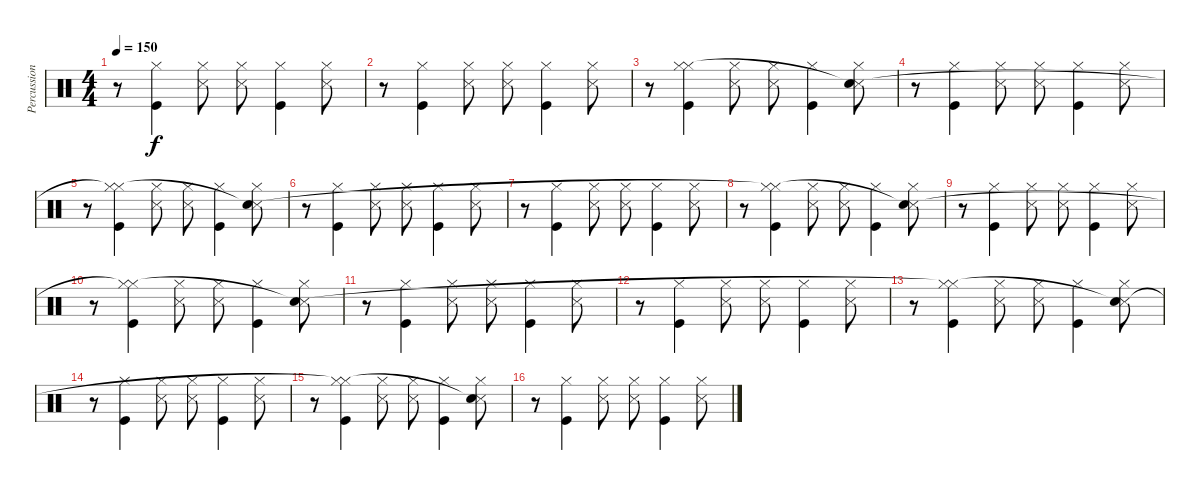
\track ("Percussion" "Percussion") {instrument percussion}
\staff {score}
\articulation defaults
\ts (4 4)
\tempo 150
\clef neutral
\ks c
r.8{dy f} ("Kick (hit)" "Hi-Hat (closed)").4 ("Snare (side stick) 3" "Hi-Hat (closed)").8 ("Snare (side stick) 3" "Hi-Hat (closed)").8 ("Kick (hit)" "Hi-Hat (closed)").4 ("Snare (side stick) 3" "Hi-Hat (closed)").8 |
r.8 ("Kick (hit)" "Hi-Hat (closed)").4 ("Snare (side stick) 3" "Hi-Hat (closed)").8 ("Snare (side stick) 3" "Hi-Hat (closed)").8 ("Kick (hit)" "Hi-Hat (closed)").4 ("Snare (side stick) 3" "Hi-Hat (closed)").8 |
r.8 ("Kick (hit)" "Hi-Hat (closed)" "Hi-Hat (closed)"{t}).4 ("Snare (side stick) 3" "Hi-Hat (closed)").8 ("Snare (side stick) 3" "Hi-Hat (closed)").8 ("Kick (hit)" "Hi-Hat (closed)").4 ("Snare (side stick) 3" "Hi-Hat (closed)" "Snare (hit)"{t}).8 |
r.8 ("Kick (hit)" "Hi-Hat (closed)").4 ("Snare (side stick) 3" "Hi-Hat (closed)").8 ("Snare (side stick) 3" "Hi-Hat (closed)").8 ("Kick (hit)" "Hi-Hat (closed)").4 ("Snare (side stick) 3" "Hi-Hat (closed)").8 |
r.8 ("Kick (hit)" "Hi-Hat (closed)" "Hi-Hat (closed)"{t}).4 ("Snare (side stick) 3" "Hi-Hat (closed)").8 ("Snare (side stick) 3" "Hi-Hat (closed)").8 ("Kick (hit)" "Hi-Hat (closed)").4 ("Snare (side stick) 3" "Hi-Hat (closed)" "Snare (hit)"{t}).8 |
r.8 ("Kick (hit)" "Hi-Hat (closed)").4 ("Snare (side stick) 3" "Hi-Hat (closed)").8 ("Snare (side stick) 3" "Hi-Hat (closed)").8 ("Kick (hit)" "Hi-Hat (closed)").4 ("Snare (side stick) 3" "Hi-Hat (closed)").8 |
r.8 ("Kick (hit)" "Hi-Hat (closed)").4 ("Snare (side stick) 3" "Hi-Hat (closed)").8 ("Snare (side stick) 3" "Hi-Hat (closed)").8 ("Kick (hit)" "Hi-Hat (closed)").4 ("Snare (side stick) 3" "Hi-Hat (closed)").8 |
r.8 ("Kick (hit)" "Hi-Hat (closed)" "Hi-Hat (closed)"{t}).4 ("Snare (side stick) 3" "Hi-Hat (closed)").8 ("Snare (side stick) 3" "Hi-Hat (closed)").8 ("Kick (hit)" "Hi-Hat (closed)").4 ("Snare (side stick) 3" "Hi-Hat (closed)" "Snare (hit)"{t}).8 |
r.8 ("Kick (hit)" "Hi-Hat (closed)").4 ("Snare (side stick) 3" "Hi-Hat (closed)").8 ("Snare (side stick) 3" "Hi-Hat (closed)").8 ("Kick (hit)" "Hi-Hat (closed)").4 ("Snare (side stick) 3" "Hi-Hat (closed)").8 |
r.8 ("Kick (hit)" "Hi-Hat (closed)" "Hi-Hat (closed)"{t}).4 ("Snare (side stick) 3" "Hi-Hat (closed)").8 ("Snare (side stick) 3" "Hi-Hat (closed)").8 ("Kick (hit)" "Hi-Hat (closed)").4 ("Snare (side stick) 3" "Hi-Hat (closed)" "Snare (hit)"{t}).8 |
r.8 ("Kick (hit)" "Hi-Hat (closed)").4 ("Snare (side stick) 3" "Hi-Hat (closed)").8 ("Snare (side stick) 3" "Hi-Hat (closed)").8 ("Kick (hit)" "Hi-Hat (closed)").4 ("Snare (side stick) 3" "Hi-Hat (closed)").8 |
r.8 ("Kick (hit)" "Hi-Hat (closed)").4 ("Snare (side stick) 3" "Hi-Hat (closed)").8 ("Snare (side stick) 3" "Hi-Hat (closed)").8 ("Kick (hit)" "Hi-Hat (closed)").4 ("Snare (side stick) 3" "Hi-Hat (closed)").8 |
r.8 ("Kick (hit)" "Hi-Hat (closed)" "Hi-Hat (closed)"{t}).4 ("Snare (side stick) 3" "Hi-Hat (closed)").8 ("Snare (side stick) 3" "Hi-Hat (closed)").8 ("Kick (hit)" "Hi-Hat (closed)").4 ("Snare (side stick) 3" "Hi-Hat (closed)" "Snare (hit)"{t}).8 |
r.8 ("Kick (hit)" "Hi-Hat (closed)").4 ("Snare (side stick) 3" "Hi-Hat (closed)").8 ("Snare (side stick) 3" "Hi-Hat (closed)").8 ("Kick (hit)" "Hi-Hat (closed)").4 ("Snare (side stick) 3" "Hi-Hat (closed)").8 |
r.8 ("Kick (hit)" "Hi-Hat (closed)" "Hi-Hat (closed)"{t}).4 ("Snare (side stick) 3" "Hi-Hat (closed)").8 ("Snare (side stick) 3" "Hi-Hat (closed)").8 ("Kick (hit)" "Hi-Hat (closed)").4 ("Snare (side stick) 3" "Hi-Hat (closed)" "Snare (hit)"{t}).8 |
r.8 ("Kick (hit)" "Hi-Hat (closed)").4 ("Snare (side stick) 3" "Hi-Hat (closed)").8 ("Snare (side stick) 3" "Hi-Hat (closed)").8 ("Kick (hit)" "Hi-Hat (closed)").4 ("Snare (side stick) 3" "Hi-Hat (closed)").8
